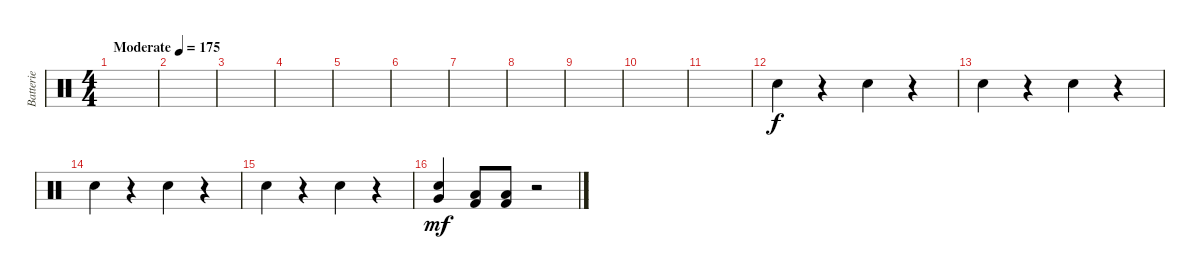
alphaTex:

\track ("Batterie" "Batterie") {instrument percussion}
\staff {score}
\articulation defaults
\ts (4 4)
\tempo (175 "Moderate")
\clef neutral
\ks c
|
|
|
|
|
|
|
|
|
|
|
"Electric Snare (hit)".4 r.4 "Electric Snare (hit)".4 r.4 |
"Electric Snare (hit)".4 r.4 "Electric Snare (hit)".4 r.4 |
"Electric Snare (hit)".4 r.4 "Electric Snare (hit)".4 r.4 |
"Electric Snare (hit)".4 r.4 "Electric Snare (hit)".4 r.4 |
("Electric Snare (hit)" "Very Low Tom (hit)").4{dy mf} ("Kick (hit) 2" "Low Floor Tom (hit)").8 ("Kick (hit) 2" "Low Floor Tom (hit)").8 r.2
